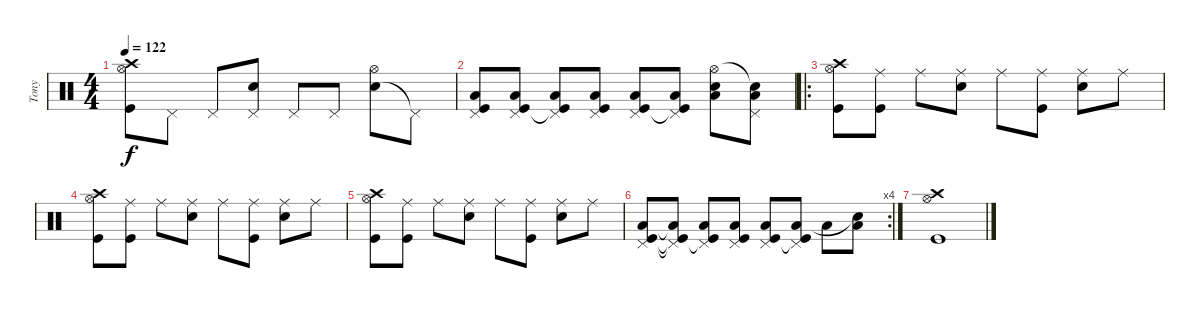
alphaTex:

\track ("Tony" "Tony") {instrument percussion}
\staff {score}
\articulation defaults
\ts (4 4)
\tempo 122
\clef neutral
\ks c
("Kick (hit)" "Hi-Hat (open)" "Crash high (hit)").8{dy f} "Pedal Hi-Hat (hit)".8 "Pedal Hi-Hat (hit)".8 ("Snare (hit) 2" "Pedal Hi-Hat (hit)").8 "Pedal Hi-Hat (hit)".8 "Pedal Hi-Hat (hit)".8 ("Snare (hit) 2" "Hi-Hat (open)").8 "Pedal Hi-Hat (hit)"{t}.8 |
("Kick (hit)" "Low Floor Tom (hit)" "Pedal Hi-Hat (hit)").8 ("Kick (hit)" "Low Floor Tom (hit)" "Pedal Hi-Hat (hit)").8 ("Kick (hit)"{t} "Low Floor Tom (hit)" "Pedal Hi-Hat (hit)").8 ("Kick (hit)" "Low Floor Tom (hit)" "Pedal Hi-Hat (hit)").8 ("Kick (hit)" "Low Floor Tom (hit)" "Pedal Hi-Hat (hit)").8 ("Kick (hit)"{t} "Low Floor Tom (hit)" "Pedal Hi-Hat (hit)").8 ("Snare (hit) 2" "Low Floor Tom (hit)" "Hi-Hat (open)").8 ("Pedal Hi-Hat (hit)" "Low Floor Tom (hit)" "Snare (hit)"{t}).8 |
\ro
("Kick (hit)" "Hi-Hat (open)" "Crash high (hit)").8 ("Kick (hit)" "Ride (middle)").8 "Ride (middle)".8 ("Snare (hit) 2" "Ride (middle)").8 "Ride (middle)".8 ("Kick (hit)" "Ride (middle)").8 ("Snare (hit) 2" "Ride (middle)").8 "Ride (middle)".8 |
("Kick (hit)" "Hi-Hat (open)" "Crash high (hit)").8 ("Kick (hit)" "Ride (middle)").8 "Ride (middle)".8 ("Snare (hit) 2" "Ride (middle)").8 "Ride (middle)".8 ("Kick (hit)" "Ride (middle)").8 ("Snare (hit) 2" "Ride (middle)").8 "Ride (middle)".8 |
("Kick (hit)" "Hi-Hat (open)" "Crash high (hit)").8 ("Kick (hit)" "Ride (middle)").8 "Ride (middle)".8 ("Snare (hit) 2" "Ride (middle)").8 "Ride (middle)".8 ("Kick (hit)" "Ride (middle)").8 ("Snare (hit) 2" "Ride (middle)").8 "Ride (middle)".8 |
\rc 4
("Kick (hit)" "Low Floor Tom (hit)" "Pedal Hi-Hat (hit)").8 ("Kick (hit)"{t} "Low Floor Tom (hit)"{t} "Pedal Hi-Hat (hit)"{t}).8 ("Kick (hit)"{t} "Low Floor Tom (hit)" "Pedal Hi-Hat (hit)").8 ("Kick (hit)" "Low Floor Tom (hit)" "Pedal Hi-Hat (hit)").8 ("Kick (hit)" "Low Floor Tom (hit)" "Pedal Hi-Hat (hit)").8 ("Kick (hit)"{t} "Low Floor Tom (hit)" "Pedal Hi-Hat (hit)").8 "Low Floor Tom (hit)".8 ("Low Floor Tom (hit)" "Snare (hit)"{t}).8 |
("Kick (hit)" "Hi-Hat (open)" "Crash high (hit)").1
